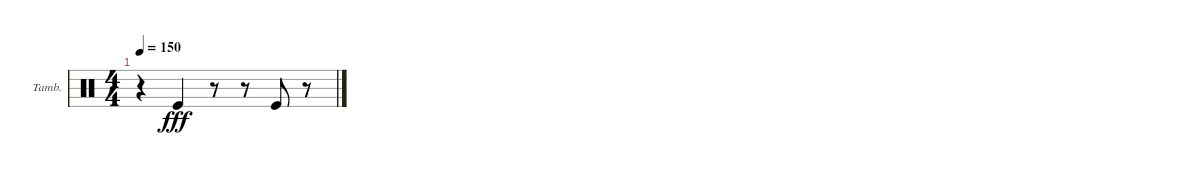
\bracketExtendMode groupsimilarinstruments
\firstSystemTrackNameOrientation horizontal
\otherSystemsTrackNameOrientation horizontal
\track ("Tambourine" "Tamb.") {instrument percussion}
\staff {score}
\articulation defaults
\ts (4 4)
\tempo 150
\clef neutral
\ks c
r.4{dy fff} "Kick (hit)".4 r.8 r.8 "Kick (hit)".8 r.8
